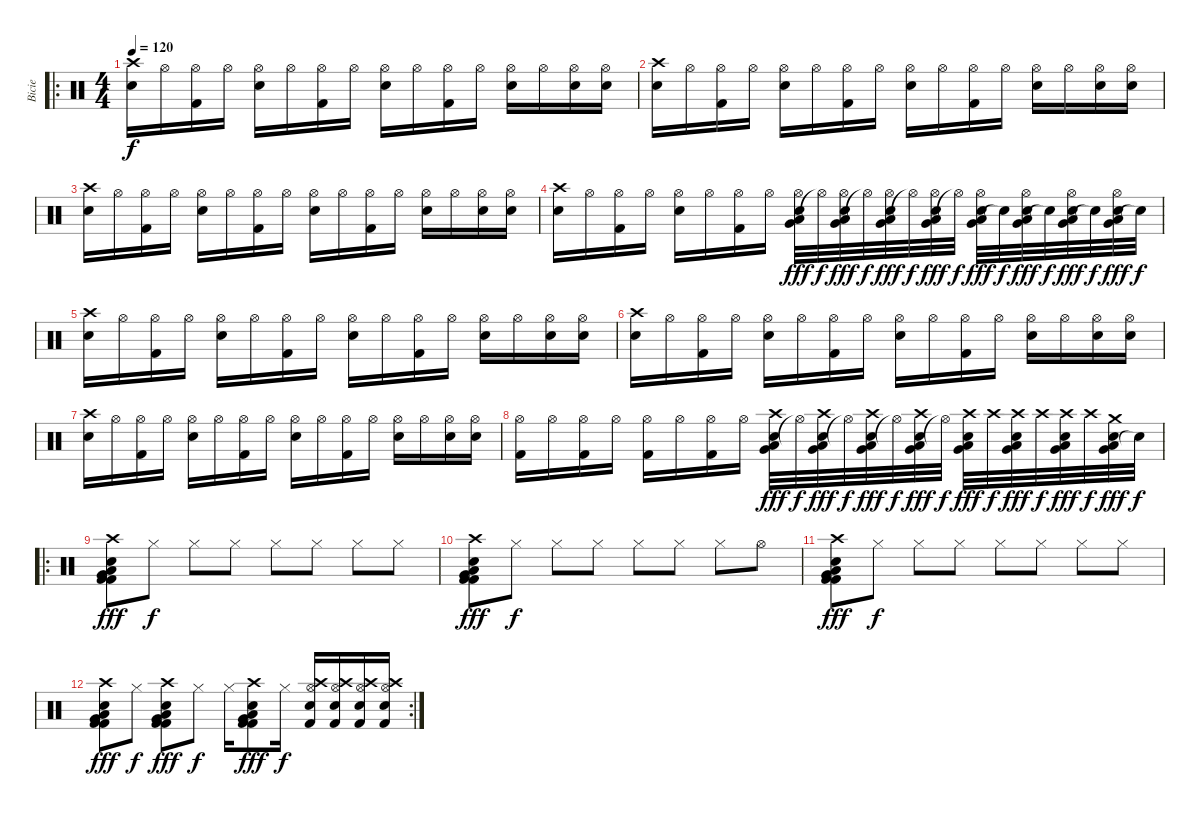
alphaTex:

\track ("Bicie" "Bicie") {instrument percussion}
\staff {score}
\articulation defaults
\ro
\ts (4 4)
\tempo 120
\clef neutral
\ks c
("Electric Snare (hit)" "Crash high (hit)").16{dy f} "Hi-Hat (open)".16 ("Kick (hit) 2" "Hi-Hat (open)").16 "Hi-Hat (open)".16 ("Electric Snare (hit)" "Hi-Hat (open)").16 "Hi-Hat (open)".16 ("Kick (hit) 2" "Hi-Hat (open)").16 "Hi-Hat (open)".16 ("Electric Snare (hit)" "Hi-Hat (open)").16 "Hi-Hat (open)".16 ("Kick (hit) 2" "Hi-Hat (open)").16 "Hi-Hat (open)".16 ("Electric Snare (hit)" "Hi-Hat (open)").16 "Hi-Hat (open)".16 ("Electric Snare (hit)" "Hi-Hat (open)").16 ("Electric Snare (hit)" "Hi-Hat (open)").16 |
("Electric Snare (hit)" "Crash high (hit)").16 "Hi-Hat (open)".16 ("Kick (hit) 2" "Hi-Hat (open)").16 "Hi-Hat (open)".16 ("Electric Snare (hit)" "Hi-Hat (open)").16 "Hi-Hat (open)".16 ("Kick (hit) 2" "Hi-Hat (open)").16 "Hi-Hat (open)".16 ("Electric Snare (hit)" "Hi-Hat (open)").16 "Hi-Hat (open)".16 ("Kick (hit) 2" "Hi-Hat (open)").16 "Hi-Hat (open)".16 ("Electric Snare (hit)" "Hi-Hat (open)").16 "Hi-Hat (open)".16 ("Electric Snare (hit)" "Hi-Hat (open)").16 ("Electric Snare (hit)" "Hi-Hat (open)").16 |
("Electric Snare (hit)" "Crash high (hit)").16 "Hi-Hat (open)".16 ("Kick (hit) 2" "Hi-Hat (open)").16 "Hi-Hat (open)".16 ("Electric Snare (hit)" "Hi-Hat (open)").16 "Hi-Hat (open)".16 ("Kick (hit) 2" "Hi-Hat (open)").16 "Hi-Hat (open)".16 ("Electric Snare (hit)" "Hi-Hat (open)").16 "Hi-Hat (open)".16 ("Kick (hit) 2" "Hi-Hat (open)").16 "Hi-Hat (open)".16 ("Electric Snare (hit)" "Hi-Hat (open)").16 "Hi-Hat (open)".16 ("Electric Snare (hit)" "Hi-Hat (open)").16 ("Electric Snare (hit)" "Hi-Hat (open)").16 |
("Electric Snare (hit)" "Crash high (hit)").16 "Hi-Hat (open)".16 ("Kick (hit) 2" "Hi-Hat (open)").16 "Hi-Hat (open)".16 ("Electric Snare (hit)" "Hi-Hat (open)").16 "Hi-Hat (open)".16 ("Kick (hit) 2" "Hi-Hat (open)").16 "Hi-Hat (open)".16 ("Very Low Tom (hit)" "Low Floor Tom (hit)" "Electric Snare (hit)" "Hi-Hat (open)").32{dy fff} "Hi-Hat (open)"{t}.32{dy f} ("Very Low Tom (hit)" "Low Floor Tom (hit)" "Electric Snare (hit)" "Hi-Hat (open)").32{dy fff} "Hi-Hat (open)"{t}.32{dy f} ("Very Low Tom (hit)" "Low Floor Tom (hit)" "Electric Snare (hit)" "Hi-Hat (open)").32{dy fff} "Hi-Hat (open)"{t}.32{dy f} ("Very Low Tom (hit)" "Low Floor Tom (hit)" "Electric Snare (hit)" "Hi-Hat (open)").32{dy fff} "Hi-Hat (open)"{t}.32{dy f} ("Very Low Tom (hit)" "Low Floor Tom (hit)" "Electric Snare (hit)" "Hi-Hat (open)").32{dy fff} "Snare (hit)"{t}.32{dy f} ("Very Low Tom (hit)" "Low Floor Tom (hit)" "Electric Snare (hit)" "Hi-Hat (open)").32{dy fff} "Snare (hit)"{t}.32{dy f} ("Very Low Tom (hit)" "Low Floor Tom (hit)" "Electric Snare (hit)" "Hi-Hat (open)").32{dy fff} "Snare (hit)"{t}.32{dy f} ("Very Low Tom (hit)" "Low Floor Tom (hit)" "Electric Snare (hit)" "Hi-Hat (open)").32{dy fff} "Snare (hit)"{t}.32{dy f} |
("Electric Snare (hit)" "Crash high (hit)").16 "Hi-Hat (open)".16 ("Kick (hit) 2" "Hi-Hat (open)").16 "Hi-Hat (open)".16 ("Electric Snare (hit)" "Hi-Hat (open)").16 "Hi-Hat (open)".16 ("Kick (hit) 2" "Hi-Hat (open)").16 "Hi-Hat (open)".16 ("Electric Snare (hit)" "Hi-Hat (open)").16 "Hi-Hat (open)".16 ("Kick (hit) 2" "Hi-Hat (open)").16 "Hi-Hat (open)".16 ("Electric Snare (hit)" "Hi-Hat (open)").16 "Hi-Hat (open)".16 ("Electric Snare (hit)" "Hi-Hat (open)").16 ("Electric Snare (hit)" "Hi-Hat (open)").16 |
("Electric Snare (hit)" "Crash high (hit)").16 "Hi-Hat (open)".16 ("Kick (hit) 2" "Hi-Hat (open)").16 "Hi-Hat (open)".16 ("Electric Snare (hit)" "Hi-Hat (open)").16 "Hi-Hat (open)".16 ("Kick (hit) 2" "Hi-Hat (open)").16 "Hi-Hat (open)".16 ("Electric Snare (hit)" "Hi-Hat (open)").16 "Hi-Hat (open)".16 ("Kick (hit) 2" "Hi-Hat (open)").16 "Hi-Hat (open)".16 ("Electric Snare (hit)" "Hi-Hat (open)").16 "Hi-Hat (open)".16 ("Electric Snare (hit)" "Hi-Hat (open)").16 ("Electric Snare (hit)" "Hi-Hat (open)").16 |
("Electric Snare (hit)" "Crash high (hit)").16 "Hi-Hat (open)".16 ("Kick (hit) 2" "Hi-Hat (open)").16 "Hi-Hat (open)".16 ("Electric Snare (hit)" "Hi-Hat (open)").16 "Hi-Hat (open)".16 ("Kick (hit) 2" "Hi-Hat (open)").16 "Hi-Hat (open)".16 ("Electric Snare (hit)" "Hi-Hat (open)").16 "Hi-Hat (open)".16 ("Kick (hit) 2" "Hi-Hat (open)").16 "Hi-Hat (open)".16 ("Electric Snare (hit)" "Hi-Hat (open)").16 "Hi-Hat (open)".16 ("Electric Snare (hit)" "Hi-Hat (open)").16 ("Electric Snare (hit)" "Hi-Hat (open)").16 |
("Kick (hit) 2" "Hi-Hat (open)").16 "Hi-Hat (open)".16 ("Kick (hit) 2" "Hi-Hat (open)").16 "Hi-Hat (open)".16 ("Kick (hit) 2" "Hi-Hat (open)").16 "Hi-Hat (open)".16 ("Kick (hit) 2" "Hi-Hat (open)").16 "Hi-Hat (open)".16 ("Very Low Tom (hit)" "Low Floor Tom (hit)" "Electric Snare (hit)" "Crash high (hit)").32{dy fff} "Hi-Hat (open)"{t}.32{dy f} ("Very Low Tom (hit)" "Low Floor Tom (hit)" "Electric Snare (hit)" "Crash high (hit)").32{dy fff} "Hi-Hat (open)"{t}.32{dy f} ("Very Low Tom (hit)" "Low Floor Tom (hit)" "Electric Snare (hit)" "Crash high (hit)").32{dy fff} "Hi-Hat (open)"{t}.32{dy f} ("Very Low Tom (hit)" "Low Floor Tom (hit)" "Electric Snare (hit)" "Crash high (hit)").32{dy fff} "Hi-Hat (open)"{t}.32{dy f} ("Very Low Tom (hit)" "Low Floor Tom (hit)" "Electric Snare (hit)" "Crash high (hit)").32{dy fff} "Crash high (hit)".32{dy f} ("Very Low Tom (hit)" "Low Floor Tom (hit)" "Electric Snare (hit)" "Crash high (hit)").32{dy fff} "Crash high (hit)".32{dy f} ("Very Low Tom (hit)" "Low Floor Tom (hit)" "Electric Snare (hit)" "Crash high (hit)").32{dy fff} "Crash high (hit)".32{dy f} ("Very Low Tom (hit)" "Low Floor Tom (hit)" "Electric Snare (hit)" "Crash medium (hit)").32{dy fff} "Snare (hit)"{t}.32{dy f} |
\ro
("Very Low Tom (hit)" "Low Floor Tom (hit)" "Electric Snare (hit)" "Kick (hit) 2" "Kick (hit) 2" "Crash high (hit)").8{dy fff} "Hi-Hat (closed)".8{dy f} "Hi-Hat (closed)".8 "Hi-Hat (closed)".8 "Hi-Hat (closed)".8 "Hi-Hat (closed)".8 "Hi-Hat (closed)".8 "Hi-Hat (closed)".8 |
("Very Low Tom (hit)" "Low Floor Tom (hit)" "Electric Snare (hit)" "Kick (hit) 2" "Kick (hit) 2" "Crash high (hit)").8{dy fff} "Hi-Hat (closed)".8{dy f} "Hi-Hat (closed)".8 "Hi-Hat (closed)".8 "Hi-Hat (closed)".8 "Hi-Hat (closed)".8 "Hi-Hat (closed)".8 "Hi-Hat (open)".8 |
("Very Low Tom (hit)" "Low Floor Tom (hit)" "Electric Snare (hit)" "Kick (hit) 2" "Kick (hit) 2" "Crash high (hit)").8{dy fff} "Hi-Hat (closed)".8{dy f} "Hi-Hat (closed)".8 "Hi-Hat (closed)".8 "Hi-Hat (closed)".8 "Hi-Hat (closed)".8 "Hi-Hat (closed)".8 "Hi-Hat (closed)".8 |
\rc 2
("Very Low Tom (hit)" "Low Floor Tom (hit)" "Electric Snare (hit)" "Kick (hit) 2" "Kick (hit) 2" "Crash high (hit)").8{dy fff} "Hi-Hat (closed)".8{dy f} ("Very Low Tom (hit)" "Low Floor Tom (hit)" "Electric Snare (hit)" "Kick (hit) 2" "Kick (hit) 2" "Crash high (hit)").8{dy fff} "Hi-Hat (closed)".8{dy f} "Hi-Hat (closed)".16 ("Very Low Tom (hit)" "Low Floor Tom (hit)" "Electric Snare (hit)" "Kick (hit) 2" "Kick (hit) 2" "Crash high (hit)").8{dy fff} "Hi-Hat (closed)".16{dy f} ("Crash high (hit)" "Kick (hit) 2" "Electric Snare (hit)" "Hi-Hat (open)").16 ("Crash high (hit)" "Kick (hit) 2" "Electric Snare (hit)" "Hi-Hat (open)").16 ("Crash high (hit)" "Kick (hit) 2" "Electric Snare (hit)" "Hi-Hat (open)").16 ("Crash high (hit)" "Kick (hit) 2" "Electric Snare (hit)" "Hi-Hat (open)").16
